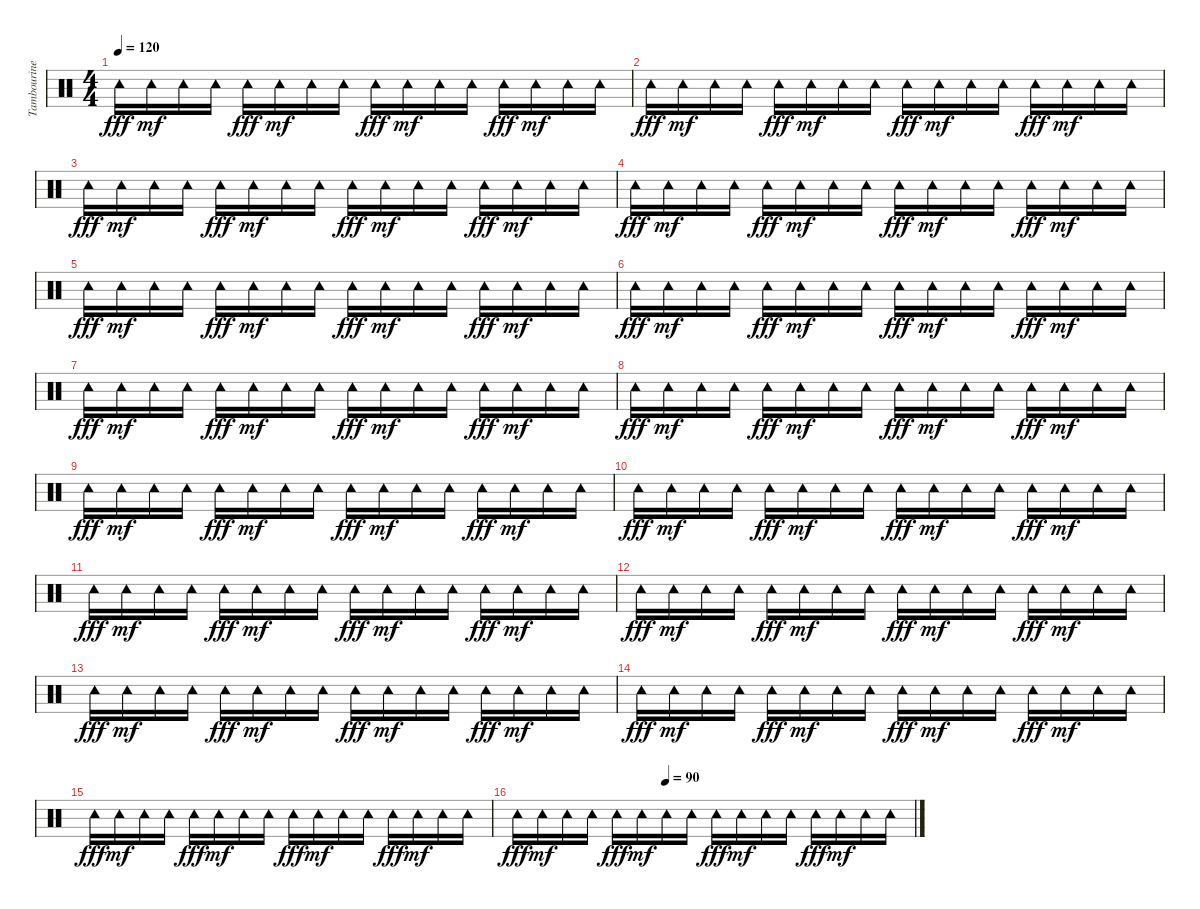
\track ("Tambourine" "Tambourine") {instrument percussion}
\staff {score}
\articulation defaults
\ts (4 4)
\tempo 120
\clef neutral
\ks c "Tambourine (hit)".16{dy fff} "Tambourine (hit)".16{dy mf} "Tambourine (hit)".16 "Tambourine (hit)".16 "Tambourine (hit)".16{dy fff} "Tambourine (hit)".16{dy mf} "Tambourine (hit)".16 "Tambourine (hit)".16 "Tambourine (hit)".16{dy fff} "Tambourine (hit)".16{dy mf} "Tambourine (hit)".16 "Tambourine (hit)".16 "Tambourine (hit)".16{dy fff} "Tambourine (hit)".16{dy mf} "Tambourine (hit)".16 "Tambourine (hit)".16
|
"Tambourine (hit)".16{dy fff} "Tambourine (hit)".16{dy mf} "Tambourine (hit)".16 "Tambourine (hit)".16 "Tambourine (hit)".16{dy fff} "Tambourine (hit)".16{dy mf} "Tambourine (hit)".16 "Tambourine (hit)".16 "Tambourine (hit)".16{dy fff} "Tambourine (hit)".16{dy mf} "Tambourine (hit)".16 "Tambourine (hit)".16 "Tambourine (hit)".16{dy fff} "Tambourine (hit)".16{dy mf} "Tambourine (hit)".16 "Tambourine (hit)".16 |
"Tambourine (hit)".16{dy fff} "Tambourine (hit)".16{dy mf} "Tambourine (hit)".16 "Tambourine (hit)".16 "Tambourine (hit)".16{dy fff} "Tambourine (hit)".16{dy mf} "Tambourine (hit)".16 "Tambourine (hit)".16 "Tambourine (hit)".16{dy fff} "Tambourine (hit)".16{dy mf} "Tambourine (hit)".16 "Tambourine (hit)".16 "Tambourine (hit)".16{dy fff} "Tambourine (hit)".16{dy mf} "Tambourine (hit)".16 "Tambourine (hit)".16 |
"Tambourine (hit)".16{dy fff} "Tambourine (hit)".16{dy mf} "Tambourine (hit)".16 "Tambourine (hit)".16 "Tambourine (hit)".16{dy fff} "Tambourine (hit)".16{dy mf} "Tambourine (hit)".16 "Tambourine (hit)".16 "Tambourine (hit)".16{dy fff} "Tambourine (hit)".16{dy mf} "Tambourine (hit)".16 "Tambourine (hit)".16 "Tambourine (hit)".16{dy fff} "Tambourine (hit)".16{dy mf} "Tambourine (hit)".16 "Tambourine (hit)".16 |
"Tambourine (hit)".16{dy fff} "Tambourine (hit)".16{dy mf} "Tambourine (hit)".16 "Tambourine (hit)".16 "Tambourine (hit)".16{dy fff} "Tambourine (hit)".16{dy mf} "Tambourine (hit)".16 "Tambourine (hit)".16 "Tambourine (hit)".16{dy fff} "Tambourine (hit)".16{dy mf} "Tambourine (hit)".16 "Tambourine (hit)".16 "Tambourine (hit)".16{dy fff} "Tambourine (hit)".16{dy mf} "Tambourine (hit)".16 "Tambourine (hit)".16 |
"Tambourine (hit)".16{dy fff} "Tambourine (hit)".16{dy mf} "Tambourine (hit)".16 "Tambourine (hit)".16 "Tambourine (hit)".16{dy fff} "Tambourine (hit)".16{dy mf} "Tambourine (hit)".16 "Tambourine (hit)".16 "Tambourine (hit)".16{dy fff} "Tambourine (hit)".16{dy mf} "Tambourine (hit)".16 "Tambourine (hit)".16 "Tambourine (hit)".16{dy fff} "Tambourine (hit)".16{dy mf} "Tambourine (hit)".16 "Tambourine (hit)".16 |
"Tambourine (hit)".16{dy fff} "Tambourine (hit)".16{dy mf} "Tambourine (hit)".16 "Tambourine (hit)".16 "Tambourine (hit)".16{dy fff} "Tambourine (hit)".16{dy mf} "Tambourine (hit)".16 "Tambourine (hit)".16 "Tambourine (hit)".16{dy fff} "Tambourine (hit)".16{dy mf} "Tambourine (hit)".16 "Tambourine (hit)".16 "Tambourine (hit)".16{dy fff} "Tambourine (hit)".16{dy mf} "Tambourine (hit)".16 "Tambourine (hit)".16 |
"Tambourine (hit)".16{dy fff} "Tambourine (hit)".16{dy mf} "Tambourine (hit)".16 "Tambourine (hit)".16 "Tambourine (hit)".16{dy fff} "Tambourine (hit)".16{dy mf} "Tambourine (hit)".16 "Tambourine (hit)".16 "Tambourine (hit)".16{dy fff} "Tambourine (hit)".16{dy mf} "Tambourine (hit)".16 "Tambourine (hit)".16 "Tambourine (hit)".16{dy fff} "Tambourine (hit)".16{dy mf} "Tambourine (hit)".16 "Tambourine (hit)".16 |
"Tambourine (hit)".16{dy fff} "Tambourine (hit)".16{dy mf} "Tambourine (hit)".16 "Tambourine (hit)".16 "Tambourine (hit)".16{dy fff} "Tambourine (hit)".16{dy mf} "Tambourine (hit)".16 "Tambourine (hit)".16 "Tambourine (hit)".16{dy fff} "Tambourine (hit)".16{dy mf} "Tambourine (hit)".16 "Tambourine (hit)".16 "Tambourine (hit)".16{dy fff} "Tambourine (hit)".16{dy mf} "Tambourine (hit)".16 "Tambourine (hit)".16 |
"Tambourine (hit)".16{dy fff} "Tambourine (hit)".16{dy mf} "Tambourine (hit)".16 "Tambourine (hit)".16 "Tambourine (hit)".16{dy fff} "Tambourine (hit)".16{dy mf} "Tambourine (hit)".16 "Tambourine (hit)".16 "Tambourine (hit)".16{dy fff} "Tambourine (hit)".16{dy mf} "Tambourine (hit)".16 "Tambourine (hit)".16 "Tambourine (hit)".16{dy fff} "Tambourine (hit)".16{dy mf} "Tambourine (hit)".16 "Tambourine (hit)".16 |
"Tambourine (hit)".16{dy fff} "Tambourine (hit)".16{dy mf} "Tambourine (hit)".16 "Tambourine (hit)".16 "Tambourine (hit)".16{dy fff} "Tambourine (hit)".16{dy mf} "Tambourine (hit)".16 "Tambourine (hit)".16 "Tambourine (hit)".16{dy fff} "Tambourine (hit)".16{dy mf} "Tambourine (hit)".16 "Tambourine (hit)".16 "Tambourine (hit)".16{dy fff} "Tambourine (hit)".16{dy mf} "Tambourine (hit)".16 "Tambourine (hit)".16 |
"Tambourine (hit)".16{dy fff} "Tambourine (hit)".16{dy mf} "Tambourine (hit)".16 "Tambourine (hit)".16 "Tambourine (hit)".16{dy fff} "Tambourine (hit)".16{dy mf} "Tambourine (hit)".16 "Tambourine (hit)".16 "Tambourine (hit)".16{dy fff} "Tambourine (hit)".16{dy mf} "Tambourine (hit)".16 "Tambourine (hit)".16 "Tambourine (hit)".16{dy fff} "Tambourine (hit)".16{dy mf} "Tambourine (hit)".16 "Tambourine (hit)".16 |
"Tambourine (hit)".16{dy fff} "Tambourine (hit)".16{dy mf} "Tambourine (hit)".16 "Tambourine (hit)".16 "Tambourine (hit)".16{dy fff} "Tambourine (hit)".16{dy mf} "Tambourine (hit)".16 "Tambourine (hit)".16 "Tambourine (hit)".16{dy fff} "Tambourine (hit)".16{dy mf} "Tambourine (hit)".16 "Tambourine (hit)".16 "Tambourine (hit)".16{dy fff} "Tambourine (hit)".16{dy mf} "Tambourine (hit)".16 "Tambourine (hit)".16 |
"Tambourine (hit)".16{dy fff} "Tambourine (hit)".16{dy mf} "Tambourine (hit)".16 "Tambourine (hit)".16 "Tambourine (hit)".16{dy fff} "Tambourine (hit)".16{dy mf} "Tambourine (hit)".16 "Tambourine (hit)".16 "Tambourine (hit)".16{dy fff} "Tambourine (hit)".16{dy mf} "Tambourine (hit)".16 "Tambourine (hit)".16 "Tambourine (hit)".16{dy fff} "Tambourine (hit)".16{dy mf} "Tambourine (hit)".16 "Tambourine (hit)".16 |
"Tambourine (hit)".16{dy fff} "Tambourine (hit)".16{dy mf} "Tambourine (hit)".16 "Tambourine (hit)".16 "Tambourine (hit)".16{dy fff} "Tambourine (hit)".16{dy mf} "Tambourine (hit)".16 "Tambourine (hit)".16 "Tambourine (hit)".16{dy fff} "Tambourine (hit)".16{dy mf} "Tambourine (hit)".16 "Tambourine (hit)".16 "Tambourine (hit)".16{dy fff} "Tambourine (hit)".16{dy mf} "Tambourine (hit)".16 "Tambourine (hit)".16 |
\tempo (90 0.375)
"Tambourine (hit)".16{dy fff} "Tambourine (hit)".16{dy mf} "Tambourine (hit)".16 "Tambourine (hit)".16 "Tambourine (hit)".16{dy fff} "Tambourine (hit)".16{dy mf} "Tambourine (hit)".16 "Tambourine (hit)".16 "Tambourine (hit)".16{dy fff} "Tambourine (hit)".16{dy mf} "Tambourine (hit)".16 "Tambourine (hit)".16 "Tambourine (hit)".16{dy fff} "Tambourine (hit)".16{dy mf} "Tambourine (hit)".16 "Tambourine (hit)".16
